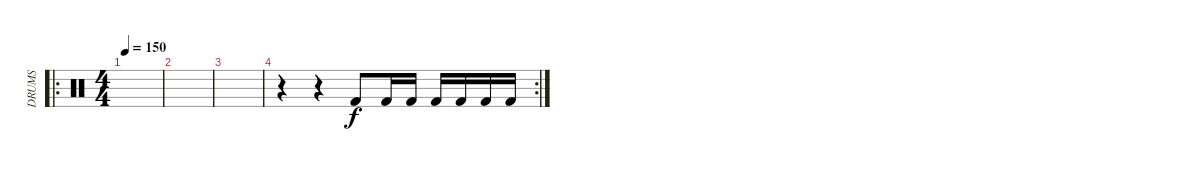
\track ("DRUMS " "DRUMS ") {instrument percussion}
\staff {score}
\articulation defaults
\ro
\ts (4 4)
\tempo 150
\clef neutral
\ks c
|
|
|
\rc 2
r.4 r.4 "Kick (hit) 2".8{dy f} "Kick (hit) 2".16 "Kick (hit) 2".16 "Kick (hit) 2".16 "Kick (hit) 2".16 "Kick (hit) 2".16 "Kick (hit) 2".16
